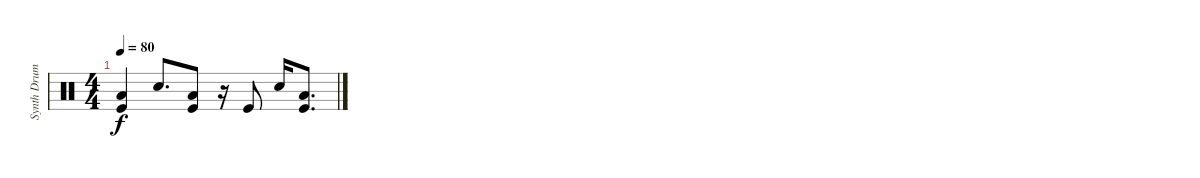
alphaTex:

\track ("Synth Drums" "Synth Drum") {instrument percussion}
\staff {score}
\articulation defaults
\ts (4 4)
\tempo 80
\clef neutral
\ks c
("Kick (hit)" "Low Floor Tom (hit)").4{dy f} "Snare (hit) 2".8{d} ("Kick (hit)" "Low Floor Tom (hit)").8 r.16 "Kick (hit)".8 "Snare (hit) 2".16 ("Kick (hit)" "Low Floor Tom (hit)").8{d}
